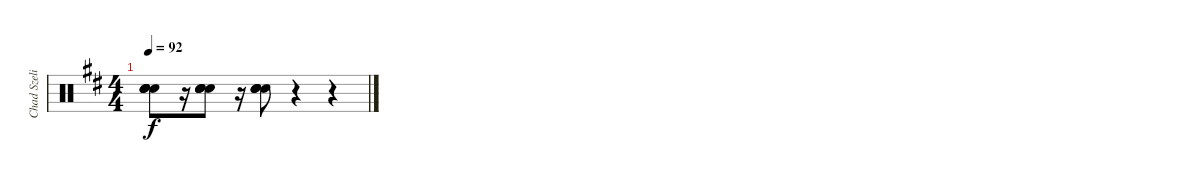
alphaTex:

\track ("Chad Szeliga" "Chad Szeli") {instrument percussion}
\staff {score}
\articulation defaults
\ts (4 4)
\tempo 92
\clef neutral
\ks d
("Snare (hit) 2" "Snare (hit) 2" "Snare (hit) 2" "Snare (hit) 2").8{dy f} r.16 ("Snare (hit) 2" "Snare (hit) 2" "Snare (hit) 2" "Snare (hit) 2").8 r.16 ("Snare (hit) 2" "Snare (hit) 2" "Snare (hit) 2" "Snare (hit) 2").8 r.4 r.4
